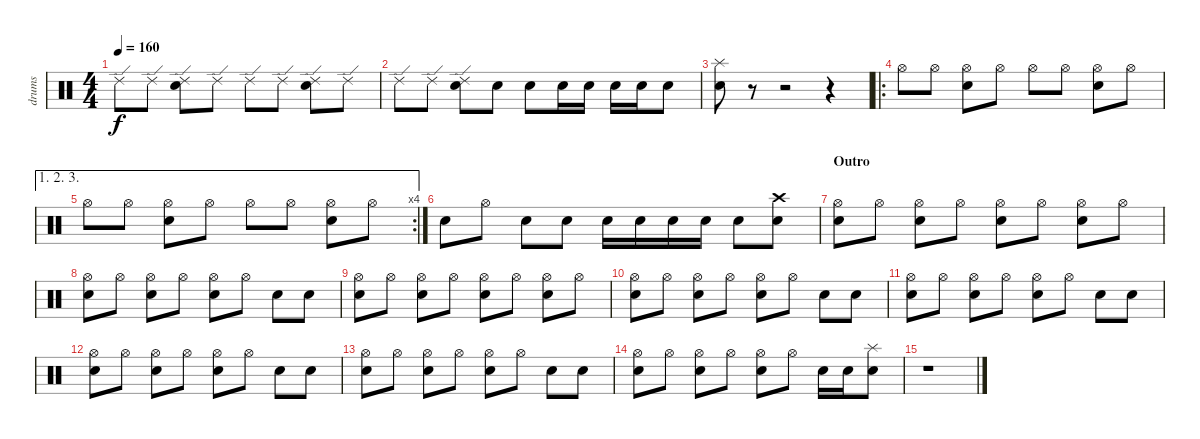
\track ("drums" "drums") {instrument percussion}
\staff {score}
\articulation defaults
\ts (4 4)
\tempo 160
\clef neutral
\ks c "Ride (edge) 2".8{dy f} "Ride (edge) 2".8
("Electric Snare (hit)" "Ride (edge) 2").8 "Ride (edge) 2".8 "Ride (edge) 2".8 "Ride (edge) 2".8 ("Electric Snare (hit)" "Ride (edge) 2").8 "Ride (edge) 2".8 |
"Ride (edge) 2".8 "Ride (edge) 2".8 ("Electric Snare (hit)" "Ride (edge) 2").8 "Electric Snare (hit)".8 "Electric Snare (hit)".8 "Electric Snare (hit)".16 "Electric Snare (hit)".16 "Electric Snare (hit)".16 "Electric Snare (hit)".16 "Electric Snare (hit)".8 |
("Splash (hit)" "Snare (hit) 2").8 r.8 r.2 r.4 |
\ro "Hi-Hat (open)".8 "Hi-Hat (open)".8
("Electric Snare (hit)" "Hi-Hat (open)").8 "Hi-Hat (open)".8 "Hi-Hat (open)".8 "Hi-Hat (open)".8 ("Electric Snare (hit)" "Hi-Hat (open)").8 "Hi-Hat (open)".8 |
\ae (1 2 3)
\rc 4 "Hi-Hat (open)".8 "Hi-Hat (open)".8
("Electric Snare (hit)" "Hi-Hat (open)").8 "Hi-Hat (open)".8 "Hi-Hat (open)".8 "Hi-Hat (open)".8 ("Electric Snare (hit)" "Hi-Hat (open)").8 "Hi-Hat (open)".8 |
"Electric Snare (hit)".8 "Hi-Hat (open)".8 "Electric Snare (hit)".8 "Electric Snare (hit)".8 "Electric Snare (hit)".16 "Electric Snare (hit)".16 "Electric Snare (hit)".16 "Electric Snare (hit)".16 "Electric Snare (hit)".8 ("Crash high (hit)" "Electric Snare (hit)").8 |
\section ("" "Outro")
("Electric Snare (hit)" "Hi-Hat (open)").8 "Hi-Hat (open)".8 ("Electric Snare (hit)" "Hi-Hat (open)").8 "Hi-Hat (open)".8 ("Electric Snare (hit)" "Hi-Hat (open)").8 "Hi-Hat (open)".8 ("Electric Snare (hit)" "Hi-Hat (open)").8 "Hi-Hat (open)".8 |
("Electric Snare (hit)" "Hi-Hat (open)").8 "Hi-Hat (open)".8 ("Electric Snare (hit)" "Hi-Hat (open)").8 "Hi-Hat (open)".8 ("Electric Snare (hit)" "Hi-Hat (open)").8 "Hi-Hat (open)".8 "Electric Snare (hit)".8 "Electric Snare (hit)".8 |
("Electric Snare (hit)" "Hi-Hat (open)").8 "Hi-Hat (open)".8 ("Electric Snare (hit)" "Hi-Hat (open)").8 "Hi-Hat (open)".8 ("Electric Snare (hit)" "Hi-Hat (open)").8 "Hi-Hat (open)".8 ("Electric Snare (hit)" "Hi-Hat (open)").8 "Hi-Hat (open)".8 |
("Electric Snare (hit)" "Hi-Hat (open)").8 "Hi-Hat (open)".8 ("Electric Snare (hit)" "Hi-Hat (open)").8 "Hi-Hat (open)".8 ("Electric Snare (hit)" "Hi-Hat (open)").8 "Hi-Hat (open)".8 "Electric Snare (hit)".8 "Electric Snare (hit)".8 |
("Electric Snare (hit)" "Hi-Hat (open)").8 "Hi-Hat (open)".8 ("Electric Snare (hit)" "Hi-Hat (open)").8 "Hi-Hat (open)".8 ("Electric Snare (hit)" "Hi-Hat (open)").8 "Hi-Hat (open)".8 "Electric Snare (hit)".8 "Electric Snare (hit)".8 |
("Electric Snare (hit)" "Hi-Hat (open)").8 "Hi-Hat (open)".8 ("Electric Snare (hit)" "Hi-Hat (open)").8 "Hi-Hat (open)".8 ("Electric Snare (hit)" "Hi-Hat (open)").8 "Hi-Hat (open)".8 "Electric Snare (hit)".8 "Electric Snare (hit)".8 |
("Electric Snare (hit)" "Hi-Hat (open)").8 "Hi-Hat (open)".8 ("Electric Snare (hit)" "Hi-Hat (open)").8 "Hi-Hat (open)".8 ("Electric Snare (hit)" "Hi-Hat (open)").8 "Hi-Hat (open)".8 "Electric Snare (hit)".8 "Electric Snare (hit)".8 |
("Electric Snare (hit)" "Hi-Hat (open)").8 "Hi-Hat (open)".8 ("Electric Snare (hit)" "Hi-Hat (open)").8 "Hi-Hat (open)".8 ("Electric Snare (hit)" "Hi-Hat (open)").8 "Hi-Hat (open)".8 "Electric Snare (hit)".16 "Electric Snare (hit)".16 ("Splash (hit)" "Electric Snare (hit)").8 |
r.1
